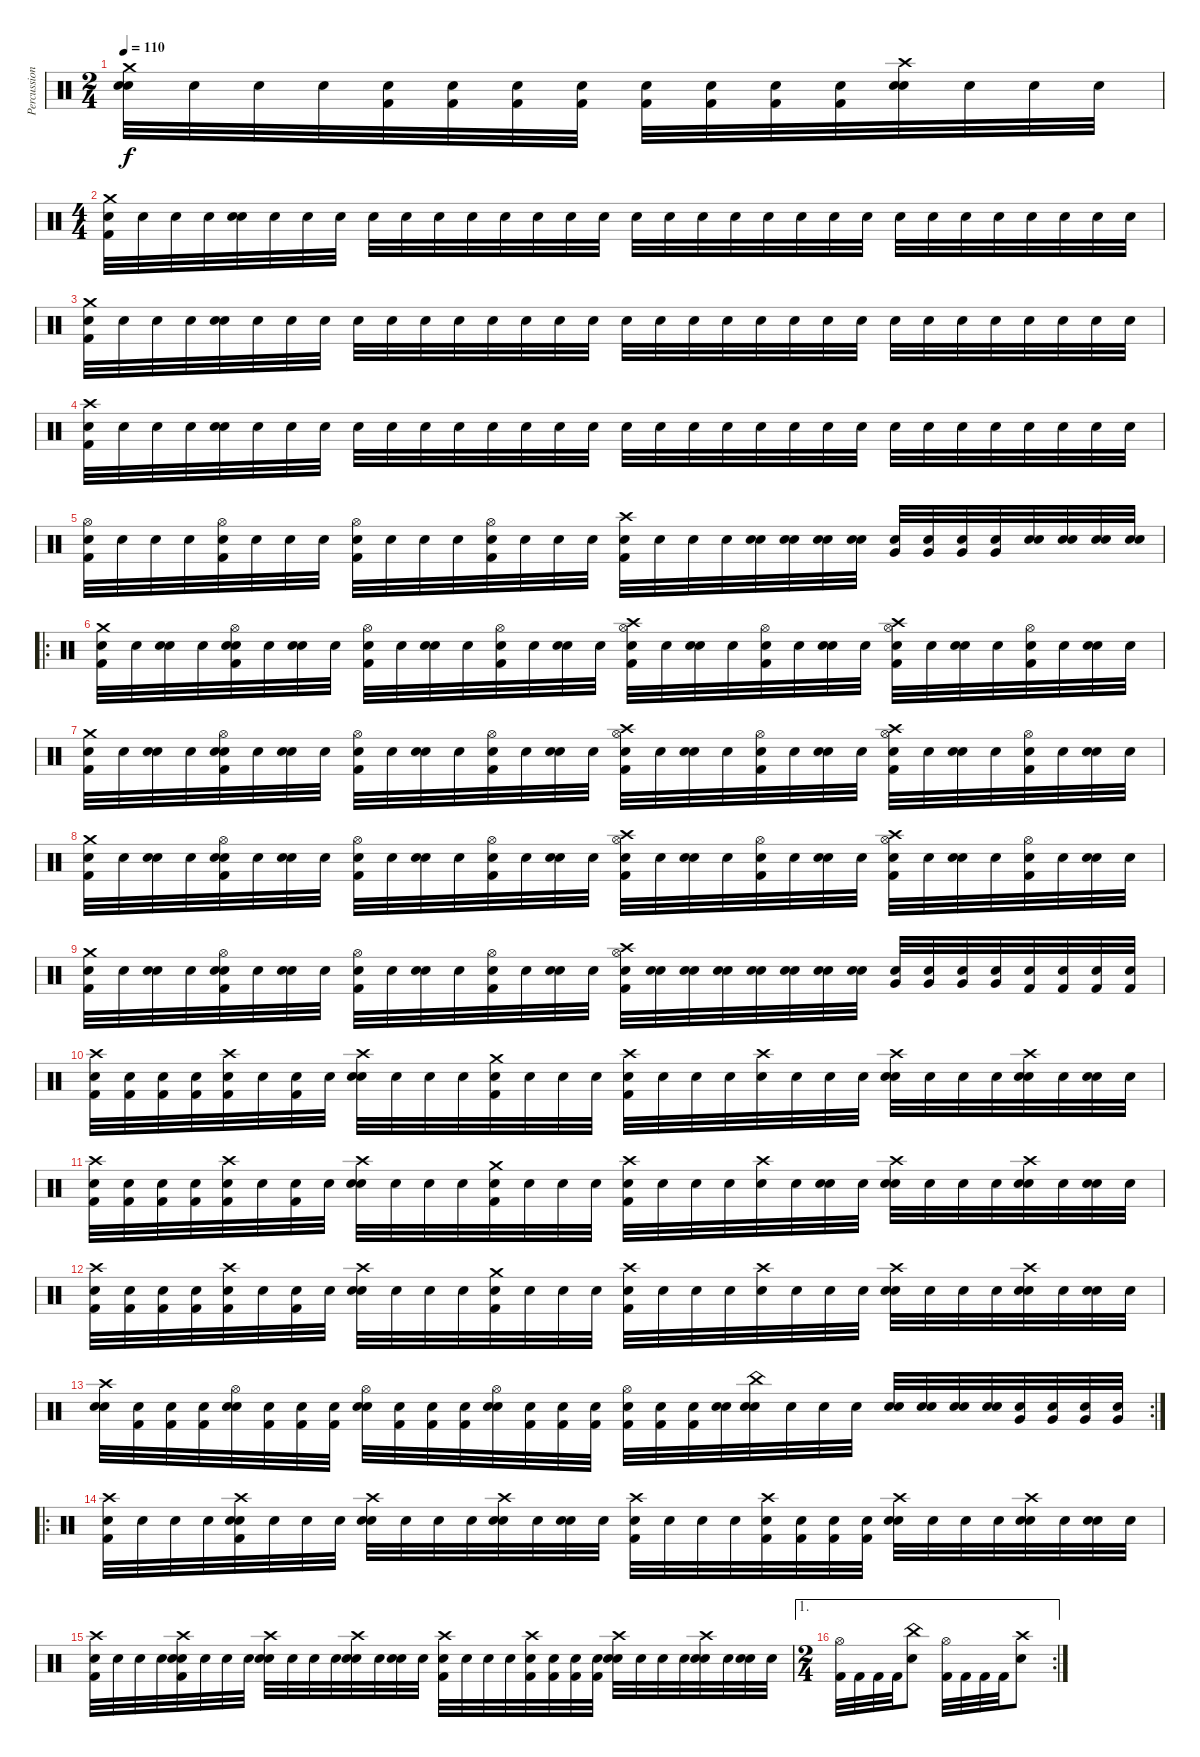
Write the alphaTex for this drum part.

\track ("Percussions" "Percussion") {instrument percussion}
\staff {score}
\articulation defaults
\ts (2 4)
\tempo 110
\clef neutral
\ks c
("Crash medium (hit)" "Snare (hit) 2" "Snare (hit)").32{dy f} "Snare (hit)".32 "Snare (hit)".32 "Snare (hit)".32 ("Kick (hit) 2" "Snare (hit)").32 ("Kick (hit) 2" "Snare (hit)").32 ("Kick (hit) 2" "Snare (hit)").32 ("Kick (hit) 2" "Snare (hit)").32 ("Kick (hit) 2" "Snare (hit)").32 ("Kick (hit) 2" "Snare (hit)").32 ("Kick (hit) 2" "Snare (hit)").32 ("Kick (hit) 2" "Snare (hit)").32 ("Crash high (hit)" "Snare (hit) 2" "Snare (hit)").32 "Snare (hit)".32 "Snare (hit)".32 "Snare (hit)".32 |
\ts (4 4)
("Crash medium (hit)" "Kick (hit) 2" "Snare (hit)").32 "Snare (hit)".32 "Snare (hit)".32 "Snare (hit)".32 ("Snare (hit)" "Snare (hit)").32 "Snare (hit)".32 "Snare (hit)".32 "Snare (hit)".32 "Snare (hit)".32 "Snare (hit)".32 "Snare (hit)".32 "Snare (hit)".32 "Snare (hit)".32 "Snare (hit)".32 "Snare (hit)".32 "Snare (hit)".32 "Snare (hit)".32 "Snare (hit)".32 "Snare (hit)".32 "Snare (hit)".32 "Snare (hit)".32 "Snare (hit)".32 "Snare (hit)".32 "Snare (hit)".32 "Snare (hit)".32 "Snare (hit)".32 "Snare (hit)".32 "Snare (hit)".32 "Snare (hit)".32 "Snare (hit)".32 "Snare (hit)".32 "Snare (hit)".32 |
("Crash medium (hit)" "Kick (hit) 2" "Snare (hit)").32 "Snare (hit)".32 "Snare (hit)".32 "Snare (hit)".32 ("Snare (hit)" "Snare (hit)").32 "Snare (hit)".32 "Snare (hit)".32 "Snare (hit)".32 "Snare (hit)".32 "Snare (hit)".32 "Snare (hit)".32 "Snare (hit)".32 "Snare (hit)".32 "Snare (hit)".32 "Snare (hit)".32 "Snare (hit)".32 "Snare (hit)".32 "Snare (hit)".32 "Snare (hit)".32 "Snare (hit)".32 "Snare (hit)".32 "Snare (hit)".32 "Snare (hit)".32 "Snare (hit)".32 "Snare (hit)".32 "Snare (hit)".32 "Snare (hit)".32 "Snare (hit)".32 "Snare (hit)".32 "Snare (hit)".32 "Snare (hit)".32 "Snare (hit)".32 |
("Crash high (hit)" "Kick (hit) 2" "Snare (hit)").32 "Snare (hit)".32 "Snare (hit)".32 "Snare (hit)".32 ("Snare (hit)" "Snare (hit)").32 "Snare (hit)".32 "Snare (hit)".32 "Snare (hit)".32 "Snare (hit)".32 "Snare (hit)".32 "Snare (hit)".32 "Snare (hit)".32 "Snare (hit)".32 "Snare (hit)".32 "Snare (hit)".32 "Snare (hit)".32 "Snare (hit)".32 "Snare (hit)".32 "Snare (hit)".32 "Snare (hit)".32 "Snare (hit)".32 "Snare (hit)".32 "Snare (hit)".32 "Snare (hit)".32 "Snare (hit)".32 "Snare (hit)".32 "Snare (hit)".32 "Snare (hit)".32 "Snare (hit)".32 "Snare (hit)".32 "Snare (hit)".32 "Snare (hit)".32 |
("Hi-Hat (open)" "Kick (hit) 2" "Snare (hit)").32 "Snare (hit)".32 "Snare (hit)".32 "Snare (hit)".32 ("Hi-Hat (open)" "Kick (hit) 2" "Snare (hit)").32 "Snare (hit)".32 "Snare (hit)".32 "Snare (hit)".32 ("Hi-Hat (open)" "Kick (hit) 2" "Snare (hit)").32 "Snare (hit)".32 "Snare (hit)".32 "Snare (hit)".32 ("Hi-Hat (open)" "Kick (hit) 2" "Snare (hit)").32 "Snare (hit)".32 "Snare (hit)".32 "Snare (hit)".32 ("Crash high (hit)" "Kick (hit) 2" "Snare (hit)").32 "Snare (hit)".32 "Snare (hit)".32 "Snare (hit)".32 ("Snare (hit) 2" "Snare (hit)").32 ("Snare (hit) 2" "Snare (hit)").32 ("Snare (hit) 2" "Snare (hit)").32 ("Snare (hit) 2" "Snare (hit)").32 ("Very Low Tom (hit)" "Snare (hit)").32 ("Very Low Tom (hit)" "Snare (hit)").32 ("Very Low Tom (hit)" "Snare (hit)").32 ("Very Low Tom (hit)" "Snare (hit)").32 ("Snare (hit) 2" "Snare (hit)").32 ("Snare (hit) 2" "Snare (hit)").32 ("Snare (hit) 2" "Snare (hit)").32 ("Snare (hit) 2" "Snare (hit)").32 |
\ro
("Crash medium (hit)" "Kick (hit) 2" "Snare (hit)").32 "Snare (hit)".32 ("Snare (hit) 2" "Snare (hit)").32 "Snare (hit)".32 ("Hi-Hat (open)" "Kick (hit) 2" "Snare (hit)" "Snare (hit)").32 "Snare (hit)".32 ("Snare (hit) 2" "Snare (hit)").32 "Snare (hit)".32 ("Hi-Hat (open)" "Kick (hit) 2" "Snare (hit)").32 "Snare (hit)".32 ("Snare (hit) 2" "Snare (hit)").32 "Snare (hit)".32 ("Hi-Hat (open)" "Kick (hit) 2" "Snare (hit)").32 "Snare (hit)".32 ("Snare (hit) 2" "Snare (hit)").32 "Snare (hit)".32 ("Crash high (hit)" "Hi-Hat (open)" "Kick (hit) 2" "Snare (hit)").32 "Snare (hit)".32 ("Snare (hit) 2" "Snare (hit)").32 "Snare (hit)".32 ("Hi-Hat (open)" "Kick (hit) 2" "Snare (hit)").32 "Snare (hit)".32 ("Snare (hit) 2" "Snare (hit)").32 "Snare (hit)".32 ("Crash high (hit)" "Hi-Hat (open)" "Kick (hit) 2" "Snare (hit)").32 "Snare (hit)".32 ("Snare (hit) 2" "Snare (hit)").32 "Snare (hit)".32 ("Hi-Hat (open)" "Kick (hit) 2" "Snare (hit)").32 "Snare (hit)".32 ("Snare (hit) 2" "Snare (hit)").32 "Snare (hit)".32 |
("Crash medium (hit)" "Kick (hit) 2" "Snare (hit)").32 "Snare (hit)".32 ("Snare (hit) 2" "Snare (hit)").32 "Snare (hit)".32 ("Hi-Hat (open)" "Kick (hit) 2" "Snare (hit)" "Snare (hit)").32 "Snare (hit)".32 ("Snare (hit) 2" "Snare (hit)").32 "Snare (hit)".32 ("Hi-Hat (open)" "Kick (hit) 2" "Snare (hit)").32 "Snare (hit)".32 ("Snare (hit) 2" "Snare (hit)").32 "Snare (hit)".32 ("Hi-Hat (open)" "Kick (hit) 2" "Snare (hit)").32 "Snare (hit)".32 ("Snare (hit) 2" "Snare (hit)").32 "Snare (hit)".32 ("Crash high (hit)" "Hi-Hat (open)" "Kick (hit) 2" "Snare (hit)").32 "Snare (hit)".32 ("Snare (hit) 2" "Snare (hit)").32 "Snare (hit)".32 ("Hi-Hat (open)" "Kick (hit) 2" "Snare (hit)").32 "Snare (hit)".32 ("Snare (hit) 2" "Snare (hit)").32 "Snare (hit)".32 ("Crash high (hit)" "Hi-Hat (open)" "Kick (hit) 2" "Snare (hit)").32 "Snare (hit)".32 ("Snare (hit) 2" "Snare (hit)").32 "Snare (hit)".32 ("Hi-Hat (open)" "Kick (hit) 2" "Snare (hit)").32 "Snare (hit)".32 ("Snare (hit) 2" "Snare (hit)").32 "Snare (hit)".32 |
("Crash medium (hit)" "Kick (hit) 2" "Snare (hit)").32 "Snare (hit)".32 ("Snare (hit) 2" "Snare (hit)").32 "Snare (hit)".32 ("Hi-Hat (open)" "Kick (hit) 2" "Snare (hit)" "Snare (hit)").32 "Snare (hit)".32 ("Snare (hit) 2" "Snare (hit)").32 "Snare (hit)".32 ("Hi-Hat (open)" "Kick (hit) 2" "Snare (hit)").32 "Snare (hit)".32 ("Snare (hit) 2" "Snare (hit)").32 "Snare (hit)".32 ("Hi-Hat (open)" "Kick (hit) 2" "Snare (hit)").32 "Snare (hit)".32 ("Snare (hit) 2" "Snare (hit)").32 "Snare (hit)".32 ("Crash high (hit)" "Hi-Hat (open)" "Kick (hit) 2" "Snare (hit)").32 "Snare (hit)".32 ("Snare (hit) 2" "Snare (hit)").32 "Snare (hit)".32 ("Hi-Hat (open)" "Kick (hit) 2" "Snare (hit)").32 "Snare (hit)".32 ("Snare (hit) 2" "Snare (hit)").32 "Snare (hit)".32 ("Crash high (hit)" "Hi-Hat (open)" "Kick (hit) 2" "Snare (hit)").32 "Snare (hit)".32 ("Snare (hit) 2" "Snare (hit)").32 "Snare (hit)".32 ("Hi-Hat (open)" "Kick (hit) 2" "Snare (hit)").32 "Snare (hit)".32 ("Snare (hit) 2" "Snare (hit)").32 "Snare (hit)".32 |
("Crash medium (hit)" "Kick (hit) 2" "Snare (hit)").32 "Snare (hit)".32 ("Snare (hit) 2" "Snare (hit)").32 "Snare (hit)".32 ("Hi-Hat (open)" "Kick (hit) 2" "Snare (hit)" "Snare (hit)").32 "Snare (hit)".32 ("Snare (hit) 2" "Snare (hit)").32 "Snare (hit)".32 ("Hi-Hat (open)" "Kick (hit) 2" "Snare (hit)").32 "Snare (hit)".32 ("Snare (hit) 2" "Snare (hit)").32 "Snare (hit)".32 ("Hi-Hat (open)" "Kick (hit) 2" "Snare (hit)").32 "Snare (hit)".32 ("Snare (hit) 2" "Snare (hit)").32 "Snare (hit)".32 ("Crash high (hit)" "Hi-Hat (open)" "Kick (hit) 2" "Snare (hit)").32 ("Snare (hit) 2" "Snare (hit)").32 ("Snare (hit) 2" "Snare (hit)").32 ("Snare (hit) 2" "Snare (hit)").32 ("Snare (hit) 2" "Snare (hit)").32 ("Snare (hit) 2" "Snare (hit)").32 ("Snare (hit) 2" "Snare (hit)").32 ("Snare (hit) 2" "Snare (hit)").32 ("Very Low Tom (hit)" "Snare (hit)").32 ("Very Low Tom (hit)" "Snare (hit)").32 ("Very Low Tom (hit)" "Snare (hit)").32 ("Very Low Tom (hit)" "Snare (hit)").32 ("Kick (hit) 2" "Snare (hit)").32 ("Kick (hit) 2" "Snare (hit)").32 ("Kick (hit) 2" "Snare (hit)").32 ("Kick (hit) 2" "Snare (hit)").32 |
("Crash high (hit)" "Kick (hit) 2" "Snare (hit)").32 ("Kick (hit) 2" "Snare (hit)").32 ("Kick (hit) 2" "Snare (hit)").32 ("Kick (hit) 2" "Snare (hit)").32 ("Crash high (hit)" "Kick (hit) 2" "Snare (hit)").32 "Snare (hit)".32 ("Kick (hit) 2" "Snare (hit)").32 "Snare (hit)".32 ("Crash high (hit)" "Snare (hit) 2" "Snare (hit)").32 "Snare (hit)".32 "Snare (hit)".32 "Snare (hit)".32 ("Crash medium (hit)" "Kick (hit) 2" "Snare (hit)").32 "Snare (hit)".32 "Snare (hit)".32 "Snare (hit)".32 ("Crash high (hit)" "Kick (hit) 2" "Snare (hit)").32 "Snare (hit)".32 "Snare (hit)".32 "Snare (hit)".32 ("Crash high (hit)" "Snare (hit)").32 "Snare (hit)".32 "Snare (hit)".32 "Snare (hit)".32 ("Crash high (hit)" "Snare (hit) 2" "Snare (hit)").32 "Snare (hit)".32 "Snare (hit)".32 "Snare (hit)".32 ("Crash high (hit)" "Snare (hit) 2" "Snare (hit)").32 "Snare (hit)".32 ("Snare (hit) 2" "Snare (hit)").32 "Snare (hit)".32 |
("Crash high (hit)" "Kick (hit) 2" "Snare (hit)").32 ("Kick (hit) 2" "Snare (hit)").32 ("Kick (hit) 2" "Snare (hit)").32 ("Kick (hit) 2" "Snare (hit)").32 ("Crash high (hit)" "Kick (hit) 2" "Snare (hit)").32 "Snare (hit)".32 ("Kick (hit) 2" "Snare (hit)").32 "Snare (hit)".32 ("Crash high (hit)" "Snare (hit) 2" "Snare (hit)").32 "Snare (hit)".32 "Snare (hit)".32 "Snare (hit)".32 ("Crash medium (hit)" "Kick (hit) 2" "Snare (hit)").32 "Snare (hit)".32 "Snare (hit)".32 "Snare (hit)".32 ("Crash high (hit)" "Kick (hit) 2" "Snare (hit)").32 "Snare (hit)".32 "Snare (hit)".32 "Snare (hit)".32 ("Crash high (hit)" "Snare (hit)").32 "Snare (hit)".32 ("Snare (hit) 2" "Snare (hit)").32 "Snare (hit)".32 ("Crash high (hit)" "Snare (hit) 2" "Snare (hit)").32 "Snare (hit)".32 "Snare (hit)".32 "Snare (hit)".32 ("Crash high (hit)" "Snare (hit) 2" "Snare (hit)").32 "Snare (hit)".32 ("Snare (hit) 2" "Snare (hit)").32 "Snare (hit)".32 |
("Crash high (hit)" "Kick (hit) 2" "Snare (hit)").32 ("Kick (hit) 2" "Snare (hit)").32 ("Kick (hit) 2" "Snare (hit)").32 ("Kick (hit) 2" "Snare (hit)").32 ("Crash high (hit)" "Kick (hit) 2" "Snare (hit)").32 "Snare (hit)".32 ("Kick (hit) 2" "Snare (hit)").32 "Snare (hit)".32 ("Crash high (hit)" "Snare (hit) 2" "Snare (hit)").32 "Snare (hit)".32 "Snare (hit)".32 "Snare (hit)".32 ("Crash medium (hit)" "Kick (hit) 2" "Snare (hit)").32 "Snare (hit)".32 "Snare (hit)".32 "Snare (hit)".32 ("Crash high (hit)" "Kick (hit) 2" "Snare (hit)").32 "Snare (hit)".32 "Snare (hit)".32 "Snare (hit)".32 ("Crash high (hit)" "Snare (hit)").32 "Snare (hit)".32 "Snare (hit)".32 "Snare (hit)".32 ("Crash high (hit)" "Snare (hit) 2" "Snare (hit)").32 "Snare (hit)".32 "Snare (hit)".32 "Snare (hit)".32 ("Crash high (hit)" "Snare (hit) 2" "Snare (hit)").32 "Snare (hit)".32 ("Snare (hit) 2" "Snare (hit)").32 "Snare (hit)".32 |
\rc 2
("Crash high (hit)" "Snare (hit) 2" "Snare (hit)").32 ("Kick (hit) 2" "Snare (hit)").32 ("Kick (hit) 2" "Snare (hit)").32 ("Kick (hit) 2" "Snare (hit)").32 ("Hi-Hat (open)" "Snare (hit) 2" "Snare (hit)").32 ("Kick (hit) 2" "Snare (hit)").32 ("Kick (hit) 2" "Snare (hit)").32 ("Kick (hit) 2" "Snare (hit)").32 ("Hi-Hat (open)" "Snare (hit) 2" "Snare (hit)").32 ("Kick (hit) 2" "Snare (hit)").32 ("Kick (hit) 2" "Snare (hit)").32 ("Kick (hit) 2" "Snare (hit)").32 ("Hi-Hat (open)" "Snare (hit) 2" "Snare (hit)").32 ("Kick (hit) 2" "Snare (hit)").32 ("Kick (hit) 2" "Snare (hit)").32 ("Kick (hit) 2" "Snare (hit)").32 ("Hi-Hat (open)" "Kick (hit) 2" "Snare (hit)").32 ("Kick (hit) 2" "Snare (hit)").32 ("Kick (hit) 2" "Snare (hit)").32 ("Snare (hit)" "Snare (hit)").32 ("China (hit)" "Snare (hit) 2" "Snare (hit)").32 "Snare (hit)".32 "Snare (hit)".32 "Snare (hit)".32 ("Snare (hit) 2" "Snare (hit)").32 ("Snare (hit) 2" "Snare (hit)").32 ("Snare (hit) 2" "Snare (hit)").32 ("Snare (hit) 2" "Snare (hit)").32 ("Very Low Tom (hit)" "Snare (hit)").32 ("Very Low Tom (hit)" "Snare (hit)").32 ("Very Low Tom (hit)" "Snare (hit)").32 ("Very Low Tom (hit)" "Snare (hit)").32 |
\ro
("Crash high (hit)" "Kick (hit) 2" "Snare (hit)").32 "Snare (hit)".32 "Snare (hit)".32 "Snare (hit)".32 ("Crash high (hit)" "Kick (hit) 2" "Snare (hit)" "Snare (hit)").32 "Snare (hit)".32 "Snare (hit)".32 "Snare (hit)".32 ("Crash high (hit)" "Snare (hit) 2" "Snare (hit)").32 "Snare (hit)".32 "Snare (hit)".32 "Snare (hit)".32 ("Crash high (hit)" "Snare (hit) 2" "Snare (hit)").32 "Snare (hit)".32 ("Snare (hit) 2" "Snare (hit)").32 "Snare (hit)".32 ("Crash high (hit)" "Kick (hit) 2" "Snare (hit)").32 "Snare (hit)".32 "Snare (hit)".32 "Snare (hit)".32 ("Crash high (hit)" "Kick (hit) 2" "Snare (hit)").32 ("Kick (hit) 2" "Snare (hit)").32 ("Kick (hit) 2" "Snare (hit)").32 ("Kick (hit) 2" "Snare (hit)").32 ("Crash high (hit)" "Snare (hit) 2" "Snare (hit)").32 "Snare (hit)".32 "Snare (hit)".32 "Snare (hit)".32 ("Crash high (hit)" "Snare (hit) 2" "Snare (hit)").32 "Snare (hit)".32 ("Snare (hit) 2" "Snare (hit)").32 "Snare (hit)".32 |
("Crash high (hit)" "Kick (hit) 2" "Snare (hit)").32 "Snare (hit)".32 "Snare (hit)".32 "Snare (hit)".32 ("Crash high (hit)" "Kick (hit) 2" "Snare (hit)" "Snare (hit)").32 "Snare (hit)".32 "Snare (hit)".32 "Snare (hit)".32 ("Crash high (hit)" "Snare (hit) 2" "Snare (hit)").32 "Snare (hit)".32 "Snare (hit)".32 "Snare (hit)".32 ("Crash high (hit)" "Snare (hit) 2" "Snare (hit)").32 "Snare (hit)".32 ("Snare (hit) 2" "Snare (hit)").32 "Snare (hit)".32 ("Crash high (hit)" "Kick (hit) 2" "Snare (hit)").32 "Snare (hit)".32 "Snare (hit)".32 "Snare (hit)".32 ("Crash high (hit)" "Kick (hit) 2" "Snare (hit)").32 ("Kick (hit) 2" "Snare (hit)").32 ("Kick (hit) 2" "Snare (hit)").32 ("Kick (hit) 2" "Snare (hit)").32 ("Crash high (hit)" "Snare (hit) 2" "Snare (hit)").32 "Snare (hit)".32 "Snare (hit)".32 "Snare (hit)".32 ("Crash high (hit)" "Snare (hit) 2" "Snare (hit)").32 "Snare (hit)".32 ("Snare (hit) 2" "Snare (hit)").32 "Snare (hit)".32 |
\ae 1
\rc 2
\ts (2 4)
("Hi-Hat (open)" "Kick (hit) 2").32 "Kick (hit) 2".32 "Kick (hit) 2".32 "Kick (hit) 2".32 ("China (hit)" "Snare (hit) 2").8 ("Hi-Hat (open)" "Kick (hit) 2").32 "Kick (hit) 2".32 "Kick (hit) 2".32 "Kick (hit) 2".32 ("Crash high (hit)" "Snare (hit) 2").8
